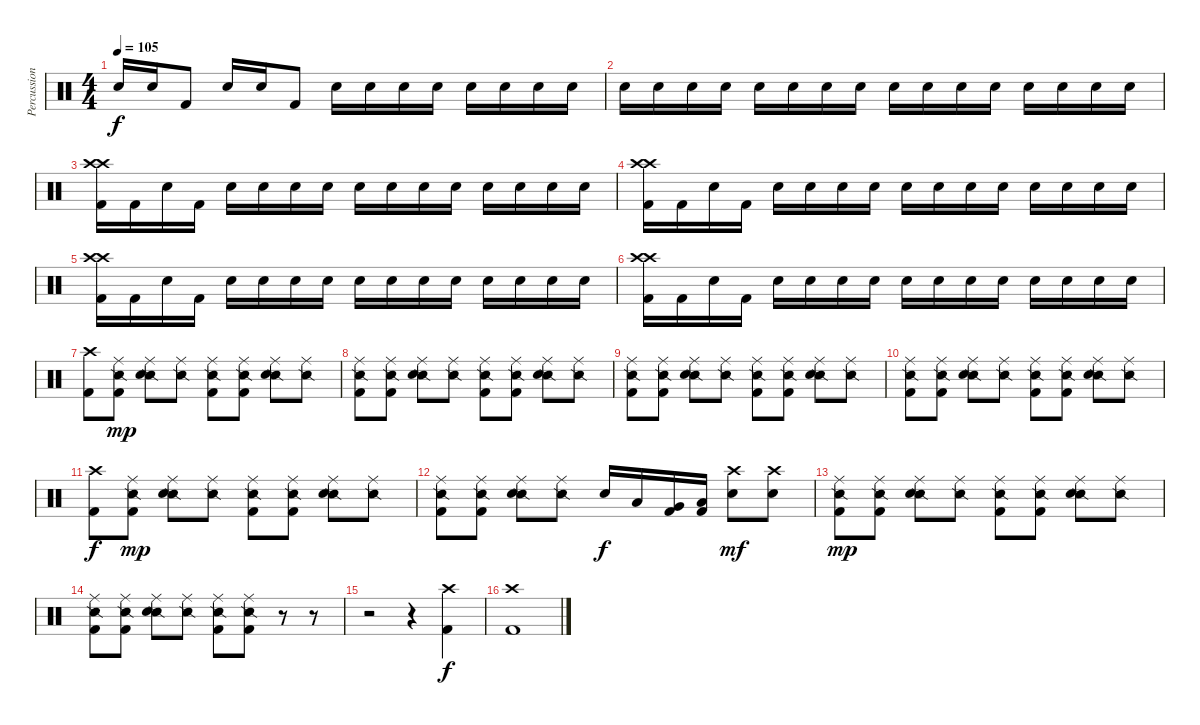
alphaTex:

\track ("Percussioni" "Percussion") {instrument percussion}
\staff {score}
\articulation defaults
\ts (4 4)
\tempo 105
\clef neutral
\ks c "Snare (hit) 2".16{dy f} "Snare (hit) 2".16 "Kick (hit) 2".8 "Snare (hit) 2".16 "Snare (hit) 2".16 "Kick (hit) 2".8 "Snare (hit) 2".16 "Snare (hit) 2".16 "Snare (hit) 2".16 "Snare (hit) 2".16 "Snare (hit) 2".16 "Snare (hit) 2".16 "Snare (hit) 2".16 "Snare (hit) 2".16
|
"Snare (hit) 2".16 "Snare (hit) 2".16 "Snare (hit) 2".16 "Snare (hit) 2".16 "Snare (hit) 2".16 "Snare (hit) 2".16 "Snare (hit) 2".16 "Snare (hit) 2".16 "Snare (hit) 2".16 "Snare (hit) 2".16 "Snare (hit) 2".16 "Snare (hit) 2".16 "Snare (hit) 2".16 "Snare (hit) 2".16 "Snare (hit) 2".16 "Snare (hit) 2".16 |
("Crash high (hit)" "Crash high (hit)" "Kick (hit) 2").16 "Kick (hit) 2".16 "Snare (hit) 2".16 "Kick (hit) 2".16 "Snare (hit) 2".16 "Snare (hit) 2".16 "Snare (hit) 2".16 "Snare (hit) 2".16 "Snare (hit) 2".16 "Snare (hit) 2".16 "Snare (hit) 2".16 "Snare (hit) 2".16 "Snare (hit) 2".16 "Snare (hit) 2".16 "Snare (hit) 2".16 "Snare (hit) 2".16 |
("Crash high (hit)" "Crash high (hit)" "Kick (hit) 2").16 "Kick (hit) 2".16 "Snare (hit) 2".16 "Kick (hit) 2".16 "Snare (hit) 2".16 "Snare (hit) 2".16 "Snare (hit) 2".16 "Snare (hit) 2".16 "Snare (hit) 2".16 "Snare (hit) 2".16 "Snare (hit) 2".16 "Snare (hit) 2".16 "Snare (hit) 2".16 "Snare (hit) 2".16 "Snare (hit) 2".16 "Snare (hit) 2".16 |
("Crash high (hit)" "Crash high (hit)" "Kick (hit) 2").16 "Kick (hit) 2".16 "Snare (hit) 2".16 "Kick (hit) 2".16 "Snare (hit) 2".16 "Snare (hit) 2".16 "Snare (hit) 2".16 "Snare (hit) 2".16 "Snare (hit) 2".16 "Snare (hit) 2".16 "Snare (hit) 2".16 "Snare (hit) 2".16 "Snare (hit) 2".16 "Snare (hit) 2".16 "Snare (hit) 2".16 "Snare (hit) 2".16 |
("Crash high (hit)" "Crash high (hit)" "Kick (hit) 2").16 "Kick (hit) 2".16 "Snare (hit) 2".16 "Kick (hit) 2".16 "Snare (hit) 2".16 "Snare (hit) 2".16 "Snare (hit) 2".16 "Snare (hit) 2".16 "Snare (hit) 2".16 "Snare (hit) 2".16 "Snare (hit) 2".16 "Snare (hit) 2".16 "Snare (hit) 2".16 "Snare (hit) 2".16 "Snare (hit) 2".16 "Snare (hit) 2".16 |
("Crash high (hit)" "Kick (hit) 2").8 ("Snare (side stick) 2" "Ride (middle)" "Kick (hit) 2").8{dy mp} ("Snare (side stick) 2" "Ride (middle)" "Snare (hit) 2").8 ("Snare (side stick) 2" "Ride (middle)").8 ("Snare (side stick) 2" "Ride (middle)" "Kick (hit) 2").8 ("Snare (side stick) 2" "Ride (middle)" "Kick (hit) 2").8 ("Snare (side stick) 2" "Ride (middle)" "Snare (hit) 2").8 ("Snare (side stick) 2" "Ride (middle)").8 |
("Snare (side stick) 2" "Ride (middle)" "Kick (hit) 2").8 ("Snare (side stick) 2" "Ride (middle)" "Kick (hit) 2").8 ("Snare (side stick) 2" "Ride (middle)" "Snare (hit) 2").8 ("Snare (side stick) 2" "Ride (middle)").8 ("Snare (side stick) 2" "Ride (middle)" "Kick (hit) 2").8 ("Snare (side stick) 2" "Ride (middle)" "Kick (hit) 2").8 ("Snare (side stick) 2" "Ride (middle)" "Snare (hit) 2").8 ("Snare (side stick) 2" "Ride (middle)").8 |
("Snare (side stick) 2" "Ride (middle)" "Kick (hit) 2").8 ("Snare (side stick) 2" "Ride (middle)" "Kick (hit) 2").8 ("Snare (side stick) 2" "Ride (middle)" "Snare (hit) 2").8 ("Snare (side stick) 2" "Ride (middle)").8 ("Snare (side stick) 2" "Ride (middle)" "Kick (hit) 2").8 ("Snare (side stick) 2" "Ride (middle)" "Kick (hit) 2").8 ("Snare (side stick) 2" "Ride (middle)" "Snare (hit) 2").8 ("Snare (side stick) 2" "Ride (middle)").8 |
("Snare (side stick) 2" "Ride (middle)" "Kick (hit) 2").8 ("Snare (side stick) 2" "Ride (middle)" "Kick (hit) 2").8 ("Snare (side stick) 2" "Ride (middle)" "Snare (hit) 2").8 ("Snare (side stick) 2" "Ride (middle)").8 ("Snare (side stick) 2" "Ride (middle)" "Kick (hit) 2").8 ("Snare (side stick) 2" "Ride (middle)" "Kick (hit) 2").8 ("Snare (side stick) 2" "Ride (middle)" "Snare (hit) 2").8 ("Snare (side stick) 2" "Ride (middle)").8 |
("Crash high (hit)" "Kick (hit) 2").8{dy f} ("Snare (side stick) 2" "Ride (middle)" "Kick (hit) 2").8{dy mp} ("Snare (side stick) 2" "Ride (middle)" "Snare (hit) 2").8 ("Snare (side stick) 2" "Ride (middle)").8 ("Snare (side stick) 2" "Ride (middle)" "Kick (hit) 2").8 ("Snare (side stick) 2" "Ride (middle)" "Kick (hit) 2").8 ("Snare (side stick) 2" "Ride (middle)" "Snare (hit) 2").8 ("Snare (side stick) 2" "Ride (middle)").8 |
("Snare (side stick) 2" "Ride (middle)" "Kick (hit) 2").8 ("Snare (side stick) 2" "Ride (middle)" "Kick (hit) 2").8 ("Snare (side stick) 2" "Ride (middle)" "Snare (hit) 2").8 ("Snare (side stick) 2" "Ride (middle)").8 "Snare (hit) 2".16{dy f} "Low Tom (hit)".16 ("Very Low Tom (hit)" "Kick (hit) 2").16 ("Low Floor Tom (hit)" "Kick (hit) 2").16 ("Crash high (hit)" "Snare (hit) 2").8{dy mf} ("Crash high (hit)" "Snare (hit) 2").8 |
("Snare (side stick) 2" "Ride (middle)" "Kick (hit) 2").8{dy mp} ("Snare (side stick) 2" "Ride (middle)" "Kick (hit) 2").8 ("Snare (side stick) 2" "Ride (middle)" "Snare (hit) 2").8 ("Snare (side stick) 2" "Ride (middle)").8 ("Snare (side stick) 2" "Ride (middle)" "Kick (hit) 2").8 ("Snare (side stick) 2" "Ride (middle)" "Kick (hit) 2").8 ("Snare (side stick) 2" "Ride (middle)" "Snare (hit) 2").8 ("Snare (side stick) 2" "Ride (middle)").8 |
("Snare (side stick) 2" "Ride (middle)" "Kick (hit) 2").8 ("Snare (side stick) 2" "Ride (middle)" "Kick (hit) 2").8 ("Snare (side stick) 2" "Ride (middle)" "Snare (hit) 2").8 ("Snare (side stick) 2" "Ride (middle)").8 ("Snare (side stick) 2" "Ride (middle)" "Kick (hit) 2").8 ("Snare (side stick) 2" "Ride (middle)" "Kick (hit) 2").8 r.8 r.8 |
r.2 r.4 ("Crash high (hit)" "Kick (hit) 2").4{dy f} |
("Crash high (hit)" "Kick (hit) 2").1
